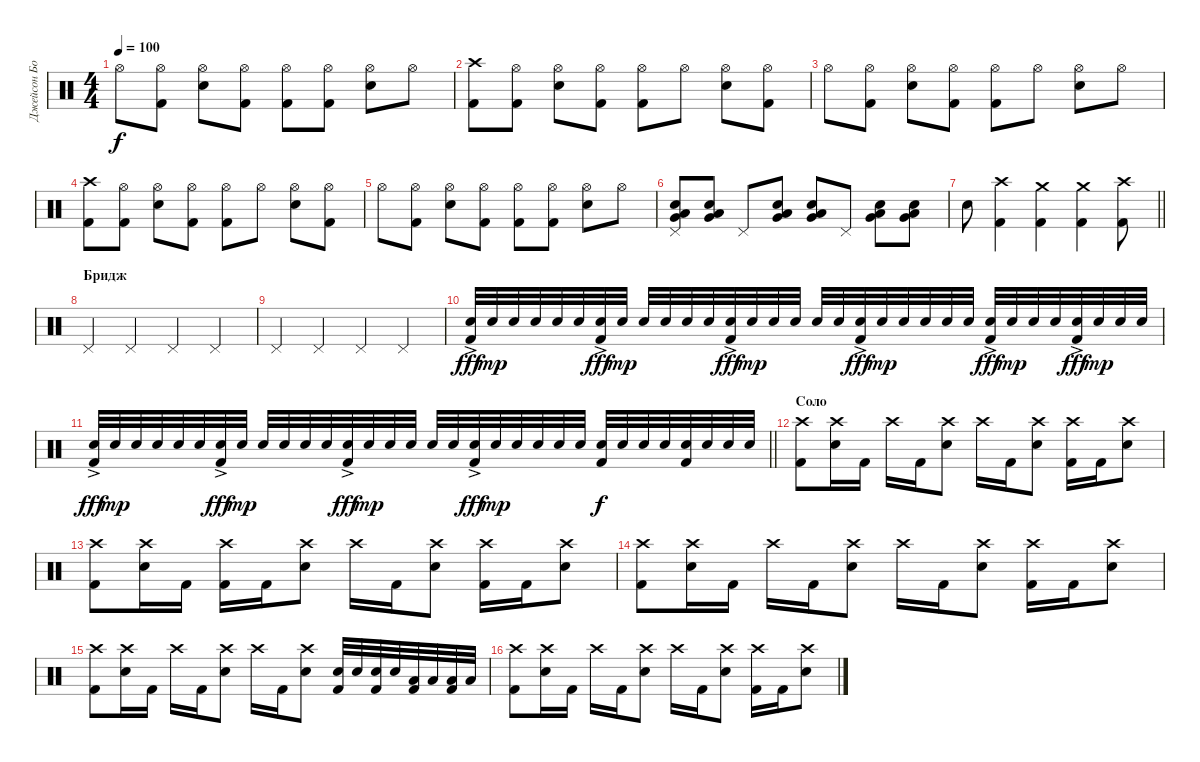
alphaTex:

\track ("Джейсон Бонэм" "Джейсон Бо") {instrument percussion}
\staff {score}
\articulation defaults
\ts (4 4)
\tempo 100
\clef neutral
\ks c "Hi-Hat (open)".8{dy f}
("Hi-Hat (open)" "Kick (hit) 2").8 ("Hi-Hat (open)" "Snare (hit) 2").8 ("Hi-Hat (open)" "Kick (hit) 2").8 ("Hi-Hat (open)" "Kick (hit) 2").8 ("Hi-Hat (open)" "Kick (hit) 2").8 ("Hi-Hat (open)" "Snare (hit) 2").8 "Hi-Hat (open)".8 |
("Crash high (hit)" "Kick (hit) 2").8 ("Hi-Hat (open)" "Kick (hit) 2").8 ("Hi-Hat (open)" "Snare (hit) 2").8 ("Hi-Hat (open)" "Kick (hit) 2").8 ("Hi-Hat (open)" "Kick (hit) 2").8 "Hi-Hat (open)".8 ("Hi-Hat (open)" "Snare (hit) 2").8 ("Hi-Hat (open)" "Kick (hit) 2").8 |
"Hi-Hat (open)".8 ("Hi-Hat (open)" "Kick (hit) 2").8 ("Hi-Hat (open)" "Snare (hit) 2").8 ("Hi-Hat (open)" "Kick (hit) 2").8 ("Hi-Hat (open)" "Kick (hit) 2").8 "Hi-Hat (open)".8 ("Hi-Hat (open)" "Snare (hit) 2").8 "Hi-Hat (open)".8 |
("Crash high (hit)" "Kick (hit) 2").8 ("Hi-Hat (open)" "Kick (hit) 2").8 ("Hi-Hat (open)" "Snare (hit) 2").8 ("Hi-Hat (open)" "Kick (hit) 2").8 ("Hi-Hat (open)" "Kick (hit) 2").8 "Hi-Hat (open)".8 ("Hi-Hat (open)" "Snare (hit) 2").8 ("Hi-Hat (open)" "Kick (hit) 2").8 |
"Hi-Hat (open)".8 ("Hi-Hat (open)" "Kick (hit) 2").8 ("Hi-Hat (open)" "Snare (hit) 2").8 ("Hi-Hat (open)" "Kick (hit) 2").8 ("Hi-Hat (open)" "Kick (hit) 2").8 ("Hi-Hat (open)" "Kick (hit) 2").8 ("Hi-Hat (open)" "Snare (hit) 2").8 "Hi-Hat (open)".8 |
("Very Low Tom (hit)" "Low Floor Tom (hit)" "Snare (hit) 2" "Pedal Hi-Hat (hit)").8 ("Very Low Tom (hit)" "Low Floor Tom (hit)" "Snare (hit) 2").8 "Pedal Hi-Hat (hit)".8 ("Very Low Tom (hit)" "Low Floor Tom (hit)" "Snare (hit) 2").8 ("Very Low Tom (hit)" "Low Floor Tom (hit)" "Snare (hit) 2").8 "Pedal Hi-Hat (hit)".8 ("Very Low Tom (hit)" "Low Floor Tom (hit)" "Snare (hit) 2").8 ("Very Low Tom (hit)" "Low Floor Tom (hit)" "Snare (hit) 2").8 |
\barLineRight lightlight "Snare (hit) 2".8
("Crash high (hit)" "Kick (hit) 2").4 ("Crash medium (hit)" "Kick (hit) 2").4 ("Crash medium (hit)" "Kick (hit) 2").4 ("Crash high (hit)" "Kick (hit) 2").8 |
\section ("" "Бридж")
"Pedal Hi-Hat (hit)".4 "Pedal Hi-Hat (hit)".4 "Pedal Hi-Hat (hit)".4 "Pedal Hi-Hat (hit)".4 |
"Pedal Hi-Hat (hit)".4 "Pedal Hi-Hat (hit)".4 "Pedal Hi-Hat (hit)".4 "Pedal Hi-Hat (hit)".4 |
("Snare (hit) 2"{ac} "Kick (hit) 2").32{dy fff} "Snare (hit) 2".32{dy mp} "Snare (hit) 2".32 "Snare (hit) 2".32 "Snare (hit) 2".32 "Snare (hit) 2".32 ("Snare (hit) 2"{ac} "Kick (hit) 2").32{dy fff} "Snare (hit) 2".32{dy mp} "Snare (hit) 2".32 "Snare (hit) 2".32 "Snare (hit) 2".32 "Snare (hit) 2".32 ("Snare (hit) 2"{ac} "Kick (hit) 2").32{dy fff} "Snare (hit) 2".32{dy mp} "Snare (hit) 2".32 "Snare (hit) 2".32 "Snare (hit) 2".32 "Snare (hit) 2".32 ("Snare (hit) 2"{ac} "Kick (hit) 2").32{dy fff} "Snare (hit) 2".32{dy mp} "Snare (hit) 2".32 "Snare (hit) 2".32 "Snare (hit) 2".32 "Snare (hit) 2".32 ("Snare (hit) 2"{ac} "Kick (hit) 2").32{dy fff} "Snare (hit) 2".32{dy mp} "Snare (hit) 2".32 "Snare (hit) 2".32 ("Snare (hit) 2"{ac} "Kick (hit) 2").32{dy fff} "Snare (hit) 2".32{dy mp} "Snare (hit) 2".32 "Snare (hit) 2".32 |
\barLineRight lightlight
("Snare (hit) 2"{ac} "Kick (hit) 2").32{dy fff} "Snare (hit) 2".32{dy mp} "Snare (hit) 2".32 "Snare (hit) 2".32 "Snare (hit) 2".32 "Snare (hit) 2".32 ("Snare (hit) 2"{ac} "Kick (hit) 2").32{dy fff} "Snare (hit) 2".32{dy mp} "Snare (hit) 2".32 "Snare (hit) 2".32 "Snare (hit) 2".32 "Snare (hit) 2".32 ("Snare (hit) 2"{ac} "Kick (hit) 2").32{dy fff} "Snare (hit) 2".32{dy mp} "Snare (hit) 2".32 "Snare (hit) 2".32 "Snare (hit) 2".32 "Snare (hit) 2".32 ("Snare (hit) 2"{ac} "Kick (hit) 2").32{dy fff} "Snare (hit) 2".32{dy mp} "Snare (hit) 2".32 "Snare (hit) 2".32 "Snare (hit) 2".32 "Snare (hit) 2".32 ("Snare (hit) 2" "Kick (hit) 2").32{dy f} "Snare (hit) 2".32 "Snare (hit) 2".32 "Snare (hit) 2".32 ("Snare (hit) 2" "Kick (hit) 2").32 "Snare (hit) 2".32 "Snare (hit) 2".32 "Snare (hit) 2".32 |
\section ("" "Соло")
("Crash high (hit)" "Kick (hit) 2").8 ("Crash high (hit)" "Snare (hit) 2").16 "Kick (hit) 2".16 "Crash high (hit)".16 "Kick (hit) 2".16 ("Crash high (hit)" "Snare (hit) 2").8 "Crash high (hit)".16 "Kick (hit) 2".16 ("Crash high (hit)" "Snare (hit) 2").8 ("Crash high (hit)" "Kick (hit) 2").16 "Kick (hit) 2".16 ("Crash high (hit)" "Snare (hit) 2").8 |
("Crash high (hit)" "Kick (hit) 2").8 ("Crash high (hit)" "Snare (hit) 2").16 "Kick (hit) 2".16 ("Crash high (hit)" "Kick (hit) 2").16 "Kick (hit) 2".16 ("Crash high (hit)" "Snare (hit) 2").8 "Crash high (hit)".16 "Kick (hit) 2".16 ("Crash high (hit)" "Snare (hit) 2").8 ("Crash high (hit)" "Kick (hit) 2").16 "Kick (hit) 2".16 ("Crash high (hit)" "Snare (hit) 2").8 |
("Crash high (hit)" "Kick (hit) 2").8 ("Crash high (hit)" "Snare (hit) 2").16 "Kick (hit) 2".16 "Crash high (hit)".16 "Kick (hit) 2".16 ("Crash high (hit)" "Snare (hit) 2").8 "Crash high (hit)".16 "Kick (hit) 2".16 ("Crash high (hit)" "Snare (hit) 2").8 ("Crash high (hit)" "Kick (hit) 2").16 "Kick (hit) 2".16 ("Crash high (hit)" "Snare (hit) 2").8 |
("Crash high (hit)" "Kick (hit) 2").8 ("Crash high (hit)" "Snare (hit) 2").16 "Kick (hit) 2".16 "Crash high (hit)".16 "Kick (hit) 2".16 ("Crash high (hit)" "Snare (hit) 2").8 "Crash high (hit)".16 "Kick (hit) 2".16 ("Crash high (hit)" "Snare (hit) 2").8 ("Snare (hit) 2" "Kick (hit) 2").32 "Snare (hit) 2".32 ("Snare (hit) 2" "Kick (hit) 2").32 "Snare (hit) 2".32 ("Low Tom (hit)" "Kick (hit) 2").32 "Low Tom (hit)".32 ("Low Tom (hit)" "Kick (hit) 2").32 "Low Tom (hit)".32 |
("Crash high (hit)" "Kick (hit) 2").8 ("Crash high (hit)" "Snare (hit) 2").16 "Kick (hit) 2".16 "Crash high (hit)".16 "Kick (hit) 2".16 ("Crash high (hit)" "Snare (hit) 2").8 "Crash high (hit)".16 "Kick (hit) 2".16 ("Crash high (hit)" "Snare (hit) 2").8 ("Crash high (hit)" "Kick (hit) 2").16 "Kick (hit) 2".16 ("Crash high (hit)" "Snare (hit) 2").8
